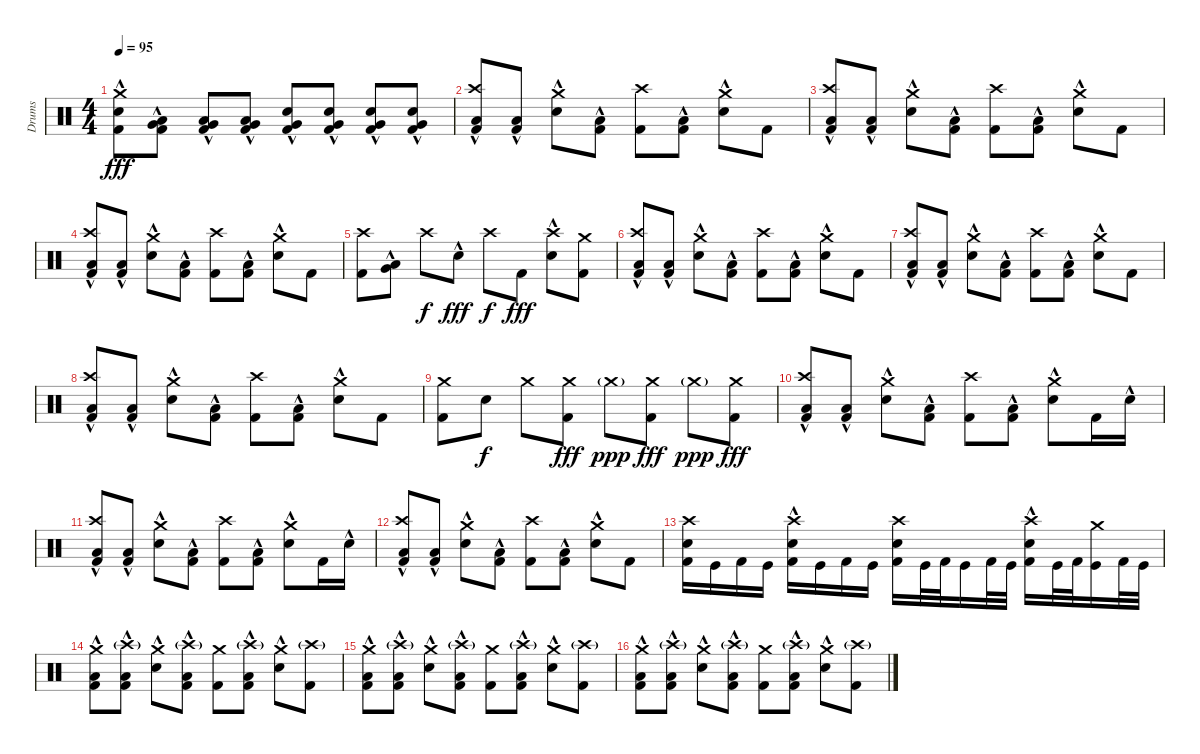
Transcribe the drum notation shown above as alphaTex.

\track ("Drums" "Drums") {instrument percussion}
\staff {score}
\articulation defaults
\ts (4 4)
\tempo 95
\clef neutral
\ks c
("Crash medium (hit)" "Electric Snare (hit)"{hac} "Kick (hit) 2").8{dy fff} ("Low Tom (hit)"{hac} "Very Low Tom (hit)"{hac} "Kick (hit) 2").8 ("Low Tom (hit)"{hac} "Very Low Tom (hit)"{hac} "Kick (hit) 2").8 ("Low Tom (hit)"{hac} "Very Low Tom (hit)"{hac} "Kick (hit) 2").8 ("Electric Snare (hit)"{hac} "Very Low Tom (hit)"{hac} "Kick (hit) 2").8 ("Electric Snare (hit)"{hac} "Very Low Tom (hit)"{hac} "Kick (hit) 2").8 ("Electric Snare (hit)"{hac} "Very Low Tom (hit)"{hac} "Kick (hit) 2").8 ("Electric Snare (hit)"{hac} "Very Low Tom (hit)"{hac} "Kick (hit) 2").8 |
("Crash high (hit)" "Low Floor Tom (hit)"{hac} "Kick (hit) 2").8 ("Low Floor Tom (hit)"{hac} "Kick (hit) 2").8 ("Crash medium (hit)" "Electric Snare (hit)"{hac}).8 ("Low Floor Tom (hit)"{hac} "Kick (hit) 2").8 ("Crash high (hit)" "Kick (hit) 2").8 ("Low Floor Tom (hit)"{hac} "Kick (hit) 2").8 ("Crash medium (hit)" "Electric Snare (hit)"{hac}).8 "Kick (hit) 2".8 |
("Crash high (hit)" "Low Floor Tom (hit)"{hac} "Kick (hit) 2").8 ("Low Floor Tom (hit)"{hac} "Kick (hit) 2").8 ("Crash medium (hit)" "Electric Snare (hit)"{hac}).8 ("Low Floor Tom (hit)"{hac} "Kick (hit) 2").8 ("Crash high (hit)" "Kick (hit) 2").8 ("Low Floor Tom (hit)"{hac} "Kick (hit) 2").8 ("Crash medium (hit)" "Electric Snare (hit)"{hac}).8 "Kick (hit) 2".8 |
("Crash high (hit)" "Low Floor Tom (hit)"{hac} "Kick (hit) 2").8 ("Low Floor Tom (hit)"{hac} "Kick (hit) 2").8 ("Crash medium (hit)" "Electric Snare (hit)"{hac}).8 ("Low Floor Tom (hit)"{hac} "Kick (hit) 2").8 ("Crash high (hit)" "Kick (hit) 2").8 ("Low Floor Tom (hit)"{hac} "Kick (hit) 2").8 ("Crash medium (hit)" "Electric Snare (hit)"{hac}).8 "Kick (hit) 2".8 |
("Crash high (hit)" "Kick (hit) 2").8 ("Low Tom (hit)"{hac} "Very Low Tom (hit)"{hac}).8 "Crash high (hit)".8{dy f} "Electric Snare (hit)"{hac}.8{dy fff} "Crash high (hit)".8{dy f} "Kick (hit) 2".8{dy fff} ("Crash high (hit)" "Electric Snare (hit)"{hac}).8 ("Crash medium (hit)" "Kick (hit) 2").8 |
("Crash high (hit)" "Low Floor Tom (hit)"{hac} "Kick (hit) 2").8 ("Low Floor Tom (hit)"{hac} "Kick (hit) 2").8 ("Crash medium (hit)" "Electric Snare (hit)"{hac}).8 ("Low Floor Tom (hit)"{hac} "Kick (hit) 2").8 ("Crash high (hit)" "Kick (hit) 2").8 ("Low Floor Tom (hit)"{hac} "Kick (hit) 2").8 ("Crash medium (hit)" "Electric Snare (hit)"{hac}).8 "Kick (hit) 2".8 |
("Crash high (hit)" "Low Floor Tom (hit)"{hac} "Kick (hit) 2").8 ("Low Floor Tom (hit)"{hac} "Kick (hit) 2").8 ("Crash medium (hit)" "Electric Snare (hit)"{hac}).8 ("Low Floor Tom (hit)"{hac} "Kick (hit) 2").8 ("Crash high (hit)" "Kick (hit) 2").8 ("Low Floor Tom (hit)"{hac} "Kick (hit) 2").8 ("Crash medium (hit)" "Electric Snare (hit)"{hac}).8 "Kick (hit) 2".8 |
("Crash high (hit)" "Low Floor Tom (hit)"{hac} "Kick (hit) 2").8 ("Low Floor Tom (hit)"{hac} "Kick (hit) 2").8 ("Crash medium (hit)" "Electric Snare (hit)"{hac}).8 ("Low Floor Tom (hit)"{hac} "Kick (hit) 2").8 ("Crash high (hit)" "Kick (hit) 2").8 ("Low Floor Tom (hit)"{hac} "Kick (hit) 2").8 ("Crash medium (hit)" "Electric Snare (hit)"{hac}).8 "Kick (hit) 2".8 |
("Crash medium (hit)" "Kick (hit) 2").8 "Electric Snare (hit)".8{dy f} "Crash medium (hit)".8 ("Crash medium (hit)" "Kick (hit) 2").8{dy fff} "Crash medium (hit)"{g}.8{dy ppp volume 0} ("Crash medium (hit)" "Kick (hit) 2").8{dy fff volume 10} "Crash medium (hit)"{g}.8{dy ppp volume 0} ("Crash medium (hit)" "Kick (hit) 2").8{dy fff volume 10} |
("Crash high (hit)" "Low Floor Tom (hit)"{hac} "Kick (hit) 2").8 ("Low Floor Tom (hit)"{hac} "Kick (hit) 2").8 ("Crash medium (hit)" "Electric Snare (hit)"{hac}).8 ("Low Floor Tom (hit)"{hac} "Kick (hit) 2").8 ("Crash high (hit)" "Kick (hit) 2").8 ("Low Floor Tom (hit)"{hac} "Kick (hit) 2").8 ("Crash medium (hit)" "Electric Snare (hit)"{hac}).8 "Kick (hit) 2".16 "Electric Snare (hit)"{hac}.16 |
("Crash high (hit)" "Low Floor Tom (hit)"{hac} "Kick (hit) 2").8 ("Low Floor Tom (hit)"{hac} "Kick (hit) 2").8 ("Crash medium (hit)" "Electric Snare (hit)"{hac}).8 ("Low Floor Tom (hit)"{hac} "Kick (hit) 2").8 ("Crash high (hit)" "Kick (hit) 2").8 ("Low Floor Tom (hit)"{hac} "Kick (hit) 2").8 ("Crash medium (hit)" "Electric Snare (hit)"{hac}).8 "Kick (hit) 2".16 "Electric Snare (hit)"{hac}.16 |
("Crash high (hit)" "Low Floor Tom (hit)"{hac} "Kick (hit) 2").8 ("Low Floor Tom (hit)"{hac} "Kick (hit) 2").8 ("Crash medium (hit)" "Electric Snare (hit)"{hac}).8 ("Low Floor Tom (hit)"{hac} "Kick (hit) 2").8 ("Crash high (hit)" "Kick (hit) 2").8 ("Low Floor Tom (hit)"{hac} "Kick (hit) 2").8 ("Crash medium (hit)" "Electric Snare (hit)"{hac}).8 "Kick (hit) 2".8 |
("Crash high (hit)" "Electric Snare (hit)" "Kick (hit) 2").16 "Kick (hit)".16 "Kick (hit) 2".16 "Kick (hit)".16 ("Crash high (hit)" "Electric Snare (hit)"{hac} "Kick (hit) 2").16 "Kick (hit)".16 "Kick (hit) 2".16 "Kick (hit)".16 ("Crash high (hit)" "Electric Snare (hit)" "Kick (hit) 2").16 "Kick (hit)".32 "Kick (hit) 2".32 "Kick (hit)".16 "Kick (hit) 2".32 "Kick (hit)".32 ("Crash high (hit)" "Electric Snare (hit)"{hac} "Kick (hit) 2").16 "Kick (hit)".32 "Kick (hit) 2".32 ("Crash medium (hit)" "Kick (hit)").16 "Kick (hit) 2".32 "Kick (hit)".32 |
("Crash medium (hit)" "Low Floor Tom (hit)"{hac} "Kick (hit) 2").8 ("Crash high (hit)"{g} "Low Floor Tom (hit)"{hac} "Kick (hit) 2").8 ("Crash medium (hit)" "Electric Snare (hit)"{hac}).8 ("Crash high (hit)"{g} "Low Floor Tom (hit)"{hac} "Kick (hit) 2").8 ("Crash medium (hit)" "Kick (hit) 2").8 ("Crash high (hit)"{g} "Low Floor Tom (hit)"{hac} "Kick (hit) 2").8 ("Crash medium (hit)" "Electric Snare (hit)"{hac}).8 ("Crash high (hit)"{g} "Kick (hit) 2").8 |
("Crash medium (hit)" "Low Floor Tom (hit)"{hac} "Kick (hit) 2").8 ("Crash high (hit)"{g} "Low Floor Tom (hit)"{hac} "Kick (hit) 2").8 ("Crash medium (hit)" "Electric Snare (hit)"{hac}).8 ("Crash high (hit)"{g} "Low Floor Tom (hit)"{hac} "Kick (hit) 2").8 ("Crash medium (hit)" "Kick (hit) 2").8 ("Crash high (hit)"{g} "Low Floor Tom (hit)"{hac} "Kick (hit) 2").8 ("Crash medium (hit)" "Electric Snare (hit)"{hac}).8 ("Crash high (hit)"{g} "Kick (hit) 2").8 |
("Crash medium (hit)" "Low Floor Tom (hit)"{hac} "Kick (hit) 2").8 ("Crash high (hit)"{g} "Low Floor Tom (hit)"{hac} "Kick (hit) 2").8 ("Crash medium (hit)" "Electric Snare (hit)"{hac}).8 ("Crash high (hit)"{g} "Low Floor Tom (hit)"{hac} "Kick (hit) 2").8 ("Crash medium (hit)" "Kick (hit) 2").8 ("Crash high (hit)"{g} "Low Floor Tom (hit)"{hac} "Kick (hit) 2").8 ("Crash medium (hit)" "Electric Snare (hit)"{hac}).8 ("Crash high (hit)"{g} "Kick (hit) 2").8
